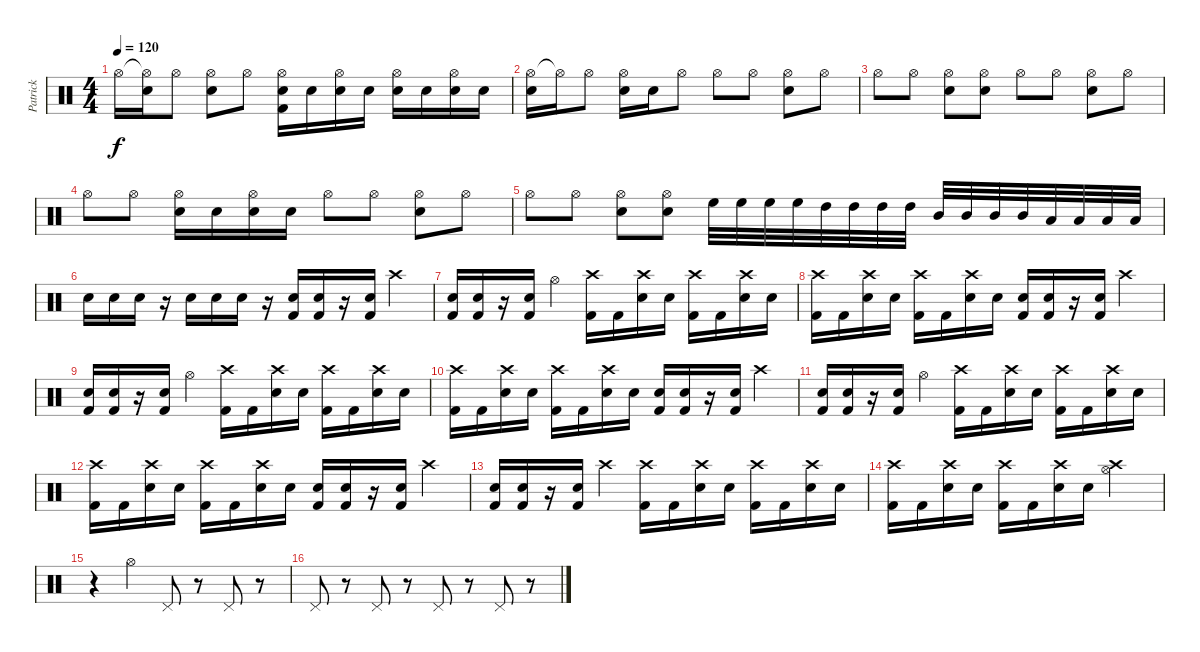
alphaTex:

\track ("Patrick" "Patrick") {instrument percussion}
\staff {score}
\articulation defaults
\ts (4 4)
\tempo 120
\clef neutral
\ks c "Hi-Hat (open)".16{dy f}
("Hi-Hat (open)"{t} "Snare (hit) 2").16 "Hi-Hat (open)".8 ("Hi-Hat (open)" "Snare (hit) 2").8 "Hi-Hat (open)".8 ("Hi-Hat (open)" "Snare (hit) 2" "Kick (hit) 2").16 "Snare (hit) 2".16 ("Hi-Hat (open)" "Snare (hit) 2").16 "Snare (hit) 2".16 ("Hi-Hat (open)" "Snare (hit) 2").16 "Snare (hit) 2".16 ("Hi-Hat (open)" "Snare (hit) 2").16 "Snare (hit) 2".16 |
("Hi-Hat (open)" "Snare (hit) 2").16 "Hi-Hat (open)"{t}.16 "Hi-Hat (open)".8 ("Hi-Hat (open)" "Snare (hit) 2").16 "Snare (hit) 2".16 "Hi-Hat (open)".8 "Hi-Hat (open)".8 "Hi-Hat (open)".8 ("Hi-Hat (open)" "Snare (hit) 2").8 "Hi-Hat (open)".8 |
"Hi-Hat (open)".8 "Hi-Hat (open)".8 ("Hi-Hat (open)" "Snare (hit) 2").8 ("Hi-Hat (open)" "Snare (hit) 2").8 "Hi-Hat (open)".8 "Hi-Hat (open)".8 ("Hi-Hat (open)" "Snare (hit) 2").8 "Hi-Hat (open)".8 |
"Hi-Hat (open)".8 "Hi-Hat (open)".8 ("Hi-Hat (open)" "Snare (hit) 2").16 "Snare (hit) 2".16 ("Hi-Hat (open)" "Snare (hit) 2").16 "Snare (hit) 2".16 "Hi-Hat (open)".8 "Hi-Hat (open)".8 ("Hi-Hat (open)" "Snare (hit) 2").8 "Hi-Hat (open)".8 |
"Hi-Hat (open)".8 "Hi-Hat (open)".8 ("Hi-Hat (open)" "Snare (hit) 2").8 ("Hi-Hat (open)" "Snare (hit) 2").8 "High Floor Tom (hit)".32 "High Floor Tom (hit)".32 "High Floor Tom (hit)".32 "High Floor Tom (hit)".32 "High Tom (hit)".32 "High Tom (hit)".32 "High Tom (hit)".32 "High Tom (hit)".32 "Mid Tom (hit)".32 "Mid Tom (hit)".32 "Mid Tom (hit)".32 "Mid Tom (hit)".32 "Low Tom (hit)".32 "Low Tom (hit)".32 "Low Tom (hit)".32 "Low Tom (hit)".32 |
"Electric Snare (hit)".16 "Electric Snare (hit)".16 "Electric Snare (hit)".16 r.16 "Snare (hit) 2".16 "Snare (hit) 2".16 "Snare (hit) 2".16 r.16 ("Snare (hit) 2" "Kick (hit) 2").16 ("Snare (hit) 2" "Kick (hit) 2").16 r.16 ("Snare (hit) 2" "Kick (hit) 2").16 "Crash high (hit)".4 |
("Snare (hit) 2" "Kick (hit) 2").16 ("Snare (hit) 2" "Kick (hit) 2").16 r.16 ("Snare (hit) 2" "Kick (hit) 2").16 "Hi-Hat (open)".4 ("Crash high (hit)" "Kick (hit) 2").16 "Kick (hit) 2".16 ("Crash high (hit)" "Snare (hit) 2").16 "Snare (hit) 2".16 ("Crash high (hit)" "Kick (hit) 2").16 "Kick (hit) 2".16 ("Crash high (hit)" "Snare (hit) 2").16 "Snare (hit) 2".16 |
("Crash high (hit)" "Kick (hit) 2").16 "Kick (hit) 2".16 ("Crash high (hit)" "Snare (hit) 2").16 "Snare (hit) 2".16 ("Crash high (hit)" "Kick (hit) 2").16 "Kick (hit) 2".16 ("Crash high (hit)" "Snare (hit) 2").16 "Snare (hit) 2".16 ("Snare (hit) 2" "Kick (hit) 2").16 ("Snare (hit) 2" "Kick (hit) 2").16 r.16 ("Snare (hit) 2" "Kick (hit) 2").16 "Crash high (hit)".4 |
("Snare (hit) 2" "Kick (hit) 2").16 ("Snare (hit) 2" "Kick (hit) 2").16 r.16 ("Snare (hit) 2" "Kick (hit) 2").16 "Hi-Hat (open)".4 ("Crash high (hit)" "Kick (hit) 2").16 "Kick (hit) 2".16 ("Crash high (hit)" "Snare (hit) 2").16 "Snare (hit) 2".16 ("Crash high (hit)" "Kick (hit) 2").16 "Kick (hit) 2".16 ("Crash high (hit)" "Snare (hit) 2").16 "Snare (hit) 2".16 |
("Crash high (hit)" "Kick (hit) 2").16 "Kick (hit) 2".16 ("Crash high (hit)" "Snare (hit) 2").16 "Snare (hit) 2".16 ("Crash high (hit)" "Kick (hit) 2").16 "Kick (hit) 2".16 ("Crash high (hit)" "Snare (hit) 2").16 "Snare (hit) 2".16 ("Snare (hit) 2" "Kick (hit) 2").16 ("Snare (hit) 2" "Kick (hit) 2").16 r.16 ("Snare (hit) 2" "Kick (hit) 2").16 "Crash high (hit)".4 |
("Snare (hit) 2" "Kick (hit) 2").16 ("Snare (hit) 2" "Kick (hit) 2").16 r.16 ("Snare (hit) 2" "Kick (hit) 2").16 "Hi-Hat (open)".4 ("Crash high (hit)" "Kick (hit) 2").16 "Kick (hit) 2".16 ("Crash high (hit)" "Snare (hit) 2").16 "Snare (hit) 2".16 ("Crash high (hit)" "Kick (hit) 2").16 "Kick (hit) 2".16 ("Crash high (hit)" "Snare (hit) 2").16 "Snare (hit) 2".16 |
("Crash high (hit)" "Kick (hit) 2").16 "Kick (hit) 2".16 ("Crash high (hit)" "Snare (hit) 2").16 "Snare (hit) 2".16 ("Crash high (hit)" "Kick (hit) 2").16 "Kick (hit) 2".16 ("Crash high (hit)" "Snare (hit) 2").16 "Snare (hit) 2".16 ("Snare (hit) 2" "Kick (hit) 2").16 ("Snare (hit) 2" "Kick (hit) 2").16 r.16 ("Snare (hit) 2" "Kick (hit) 2").16 "Crash high (hit)".4 |
("Snare (hit) 2" "Kick (hit) 2").16 ("Snare (hit) 2" "Kick (hit) 2").16 r.16 ("Snare (hit) 2" "Kick (hit) 2").16 "Crash high (hit)".4 ("Crash high (hit)" "Kick (hit) 2").16 "Kick (hit) 2".16 ("Crash high (hit)" "Snare (hit) 2").16 "Snare (hit) 2".16 ("Crash high (hit)" "Kick (hit) 2").16 "Kick (hit) 2".16 ("Crash high (hit)" "Snare (hit) 2").16 "Snare (hit) 2".16 |
("Crash high (hit)" "Kick (hit) 2").16 "Kick (hit) 2".16 ("Crash high (hit)" "Snare (hit) 2").16 "Snare (hit) 2".16 ("Crash high (hit)" "Kick (hit) 2").16 "Kick (hit) 2".16 ("Crash high (hit)" "Snare (hit) 2").16 "Snare (hit) 2".16 ("Hi-Hat (open)" "Crash high (hit)").2 |
r.4 "Hi-Hat (open)".4 "Pedal Hi-Hat (hit)".8 r.8 "Pedal Hi-Hat (hit)".8 r.8 |
"Pedal Hi-Hat (hit)".8 r.8 "Pedal Hi-Hat (hit)".8 r.8 "Pedal Hi-Hat (hit)".8 r.8 "Pedal Hi-Hat (hit)".8 r.8
